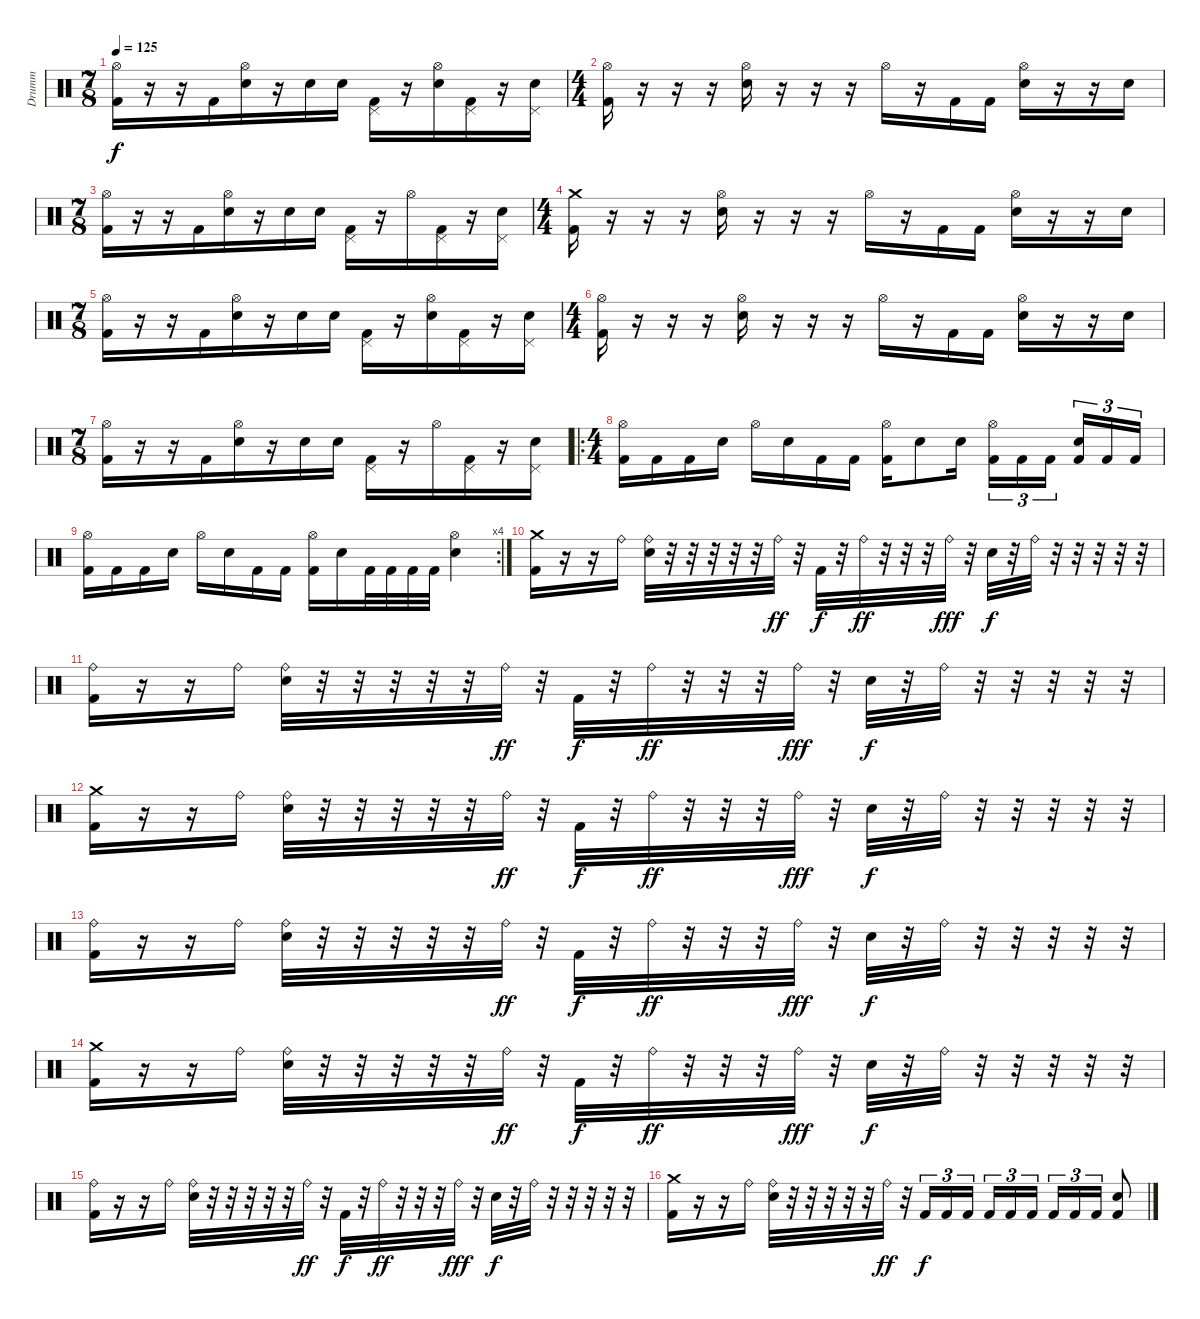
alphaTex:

\track ("Drumm" "Drumm") {instrument percussion}
\staff {score}
\articulation defaults
\ts (7 8)
\tempo 125
\clef neutral
\ks c
("Hi-Hat (open)" "Kick (hit) 2").16{dy f} r.16 r.16 "Kick (hit) 2".16 ("Hi-Hat (open)" "Electric Snare (hit)").16 r.16 "Electric Snare (hit)".16 "Electric Snare (hit)".16 ("Pedal Hi-Hat (hit)" "Kick (hit) 2").16 r.16 ("Hi-Hat (open)" "Electric Snare (hit)").16 ("Pedal Hi-Hat (hit)" "Kick (hit) 2").16 r.16 ("Pedal Hi-Hat (hit)" "Electric Snare (hit)").16 |
\ts (4 4)
("Hi-Hat (open)" "Kick (hit) 2").16 r.16 r.16 r.16 ("Hi-Hat (open)" "Electric Snare (hit)").16 r.16 r.16 r.16 "Hi-Hat (open)".16 r.16 "Kick (hit) 2".16 "Kick (hit) 2".16 ("Hi-Hat (open)" "Electric Snare (hit)").16 r.16 r.16 "Electric Snare (hit)".16 |
\ts (7 8)
("Hi-Hat (open)" "Kick (hit) 2").16 r.16 r.16 "Kick (hit) 2".16 ("Hi-Hat (open)" "Electric Snare (hit)").16 r.16 "Electric Snare (hit)".16 "Electric Snare (hit)".16 ("Pedal Hi-Hat (hit)" "Kick (hit) 2").16 r.16 "Hi-Hat (open)".16 ("Pedal Hi-Hat (hit)" "Kick (hit) 2").16 r.16 ("Pedal Hi-Hat (hit)" "Electric Snare (hit)").16 |
\ts (4 4)
("Crash medium (hit)" "Kick (hit) 2").16 r.16 r.16 r.16 ("Hi-Hat (open)" "Electric Snare (hit)").16 r.16 r.16 r.16 "Hi-Hat (open)".16 r.16 "Kick (hit) 2".16 "Kick (hit) 2".16 ("Hi-Hat (open)" "Electric Snare (hit)").16 r.16 r.16 "Electric Snare (hit)".16 |
\ts (7 8)
("Hi-Hat (open)" "Kick (hit) 2").16 r.16 r.16 "Kick (hit) 2".16 ("Hi-Hat (open)" "Electric Snare (hit)").16 r.16 "Electric Snare (hit)".16 "Electric Snare (hit)".16 ("Pedal Hi-Hat (hit)" "Kick (hit) 2").16 r.16 ("Hi-Hat (open)" "Electric Snare (hit)").16 ("Pedal Hi-Hat (hit)" "Kick (hit) 2").16 r.16 ("Pedal Hi-Hat (hit)" "Electric Snare (hit)").16 |
\ts (4 4)
("Hi-Hat (open)" "Kick (hit) 2").16 r.16 r.16 r.16 ("Hi-Hat (open)" "Electric Snare (hit)").16 r.16 r.16 r.16 "Hi-Hat (open)".16 r.16 "Kick (hit) 2".16 "Kick (hit) 2".16 ("Hi-Hat (open)" "Electric Snare (hit)").16 r.16 r.16 "Electric Snare (hit)".16 |
\ts (7 8)
("Hi-Hat (open)" "Kick (hit) 2").16 r.16 r.16 "Kick (hit) 2".16 ("Hi-Hat (open)" "Electric Snare (hit)").16 r.16 "Electric Snare (hit)".16 "Electric Snare (hit)".16 ("Pedal Hi-Hat (hit)" "Kick (hit) 2").16 r.16 "Hi-Hat (open)".16 ("Pedal Hi-Hat (hit)" "Kick (hit) 2").16 r.16 ("Pedal Hi-Hat (hit)" "Electric Snare (hit)").16 |
\ro
\ts (4 4)
("Hi-Hat (open)" "Kick (hit) 2").16 "Kick (hit) 2".16 "Kick (hit) 2".16 "Electric Snare (hit)".16 "Hi-Hat (open)".16 "Electric Snare (hit)".16 "Kick (hit) 2".16 "Kick (hit) 2".16 ("Hi-Hat (open)" "Kick (hit) 2").16 "Electric Snare (hit)".8 "Electric Snare (hit)".16 ("Hi-Hat (open)" "Kick (hit) 2").16{tu (3 2)} "Kick (hit) 2".16{tu (3 2)} "Kick (hit) 2".16{tu (3 2)} ("Electric Snare (hit)" "Kick (hit) 2").16{tu (3 2)} "Kick (hit) 2".16{tu (3 2)} "Kick (hit) 2".16{tu (3 2)} |
\rc 4
("Hi-Hat (open)" "Kick (hit) 2").16 "Kick (hit) 2".16 "Kick (hit) 2".16 "Electric Snare (hit)".16 "Hi-Hat (open)".16 "Electric Snare (hit)".16 "Kick (hit) 2".16 "Kick (hit) 2".16 ("Hi-Hat (open)" "Kick (hit) 2").16 "Electric Snare (hit)".16 "Kick (hit) 2".32 "Kick (hit) 2".32 "Kick (hit) 2".32 "Kick (hit) 2".32 ("Hi-Hat (open)" "Electric Snare (hit)").4 |
("Crash medium (hit)" "Kick (hit) 2").16 r.16 r.16 "Ride (bell)".16 ("Ride (bell)" "Electric Snare (hit)").32 r.32 r.32 r.32 r.32 r.32 "Ride (bell)".32{dy ff} r.32 "Kick (hit) 2".32{dy f} r.32 "Ride (bell)".32{dy ff} r.32 r.32 r.32 "Ride (bell)".32{dy fff} r.32 "Electric Snare (hit)".32{dy f} r.32 "Ride (bell)".32 r.32 r.32 r.32 r.32 r.32 |
("Ride (bell)" "Kick (hit) 2").16 r.16 r.16 "Ride (bell)".16 ("Ride (bell)" "Electric Snare (hit)").32 r.32 r.32 r.32 r.32 r.32 "Ride (bell)".32{dy ff} r.32 "Kick (hit) 2".32{dy f} r.32 "Ride (bell)".32{dy ff} r.32 r.32 r.32 "Ride (bell)".32{dy fff} r.32 "Electric Snare (hit)".32{dy f} r.32 "Ride (bell)".32 r.32 r.32 r.32 r.32 r.32 |
("Crash medium (hit)" "Kick (hit) 2").16 r.16 r.16 "Ride (bell)".16 ("Ride (bell)" "Electric Snare (hit)").32 r.32 r.32 r.32 r.32 r.32 "Ride (bell)".32{dy ff} r.32 "Kick (hit) 2".32{dy f} r.32 "Ride (bell)".32{dy ff} r.32 r.32 r.32 "Ride (bell)".32{dy fff} r.32 "Electric Snare (hit)".32{dy f} r.32 "Ride (bell)".32 r.32 r.32 r.32 r.32 r.32 |
("Ride (bell)" "Kick (hit) 2").16 r.16 r.16 "Ride (bell)".16 ("Ride (bell)" "Electric Snare (hit)").32 r.32 r.32 r.32 r.32 r.32 "Ride (bell)".32{dy ff} r.32 "Kick (hit) 2".32{dy f} r.32 "Ride (bell)".32{dy ff} r.32 r.32 r.32 "Ride (bell)".32{dy fff} r.32 "Electric Snare (hit)".32{dy f} r.32 "Ride (bell)".32 r.32 r.32 r.32 r.32 r.32 |
("Crash medium (hit)" "Kick (hit) 2").16 r.16 r.16 "Ride (bell)".16 ("Ride (bell)" "Electric Snare (hit)").32 r.32 r.32 r.32 r.32 r.32 "Ride (bell)".32{dy ff} r.32 "Kick (hit) 2".32{dy f} r.32 "Ride (bell)".32{dy ff} r.32 r.32 r.32 "Ride (bell)".32{dy fff} r.32 "Electric Snare (hit)".32{dy f} r.32 "Ride (bell)".32 r.32 r.32 r.32 r.32 r.32 |
("Ride (bell)" "Kick (hit) 2").16 r.16 r.16 "Ride (bell)".16 ("Ride (bell)" "Electric Snare (hit)").32 r.32 r.32 r.32 r.32 r.32 "Ride (bell)".32{dy ff} r.32 "Kick (hit) 2".32{dy f} r.32 "Ride (bell)".32{dy ff} r.32 r.32 r.32 "Ride (bell)".32{dy fff} r.32 "Electric Snare (hit)".32{dy f} r.32 "Ride (bell)".32 r.32 r.32 r.32 r.32 r.32 |
("Crash medium (hit)" "Kick (hit) 2").16 r.16 r.16 "Ride (bell)".16 ("Ride (bell)" "Electric Snare (hit)").32 r.32 r.32 r.32 r.32 r.32 "Ride (bell)".32{dy ff} r.32 "Kick (hit) 2".16{tu (3 2) dy f} "Kick (hit) 2".16{tu (3 2)} "Kick (hit) 2".16{tu (3 2)} "Kick (hit) 2".16{tu (3 2)} "Kick (hit) 2".16{tu (3 2)} "Kick (hit) 2".16{tu (3 2)} "Kick (hit) 2".16{tu (3 2)} "Kick (hit) 2".16{tu (3 2)} "Kick (hit) 2".16{tu (3 2)} ("Electric Snare (hit)" "Kick (hit) 2").8
